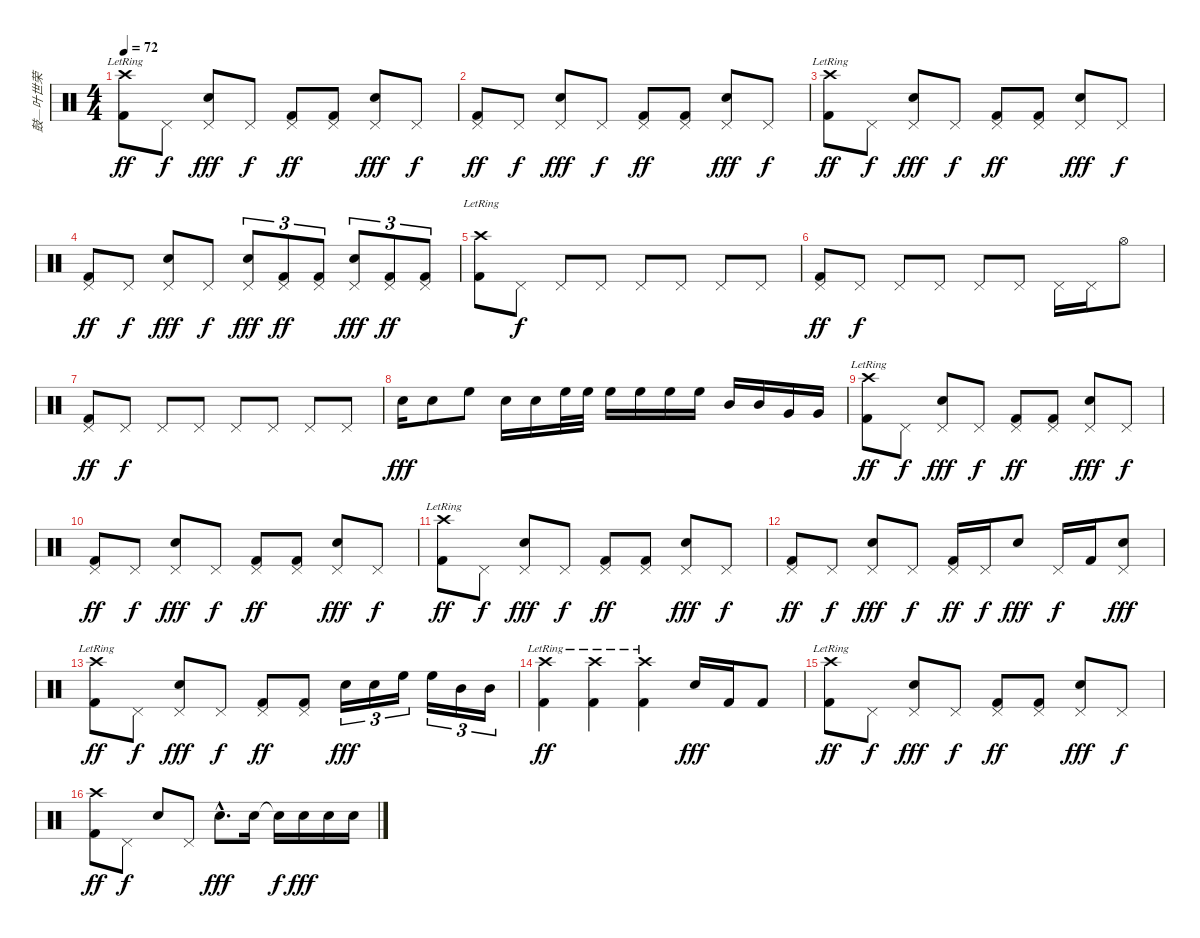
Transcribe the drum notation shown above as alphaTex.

\track ("鼓—叶世荣" "鼓—叶世荣") {instrument percussion}
\staff {score}
\articulation defaults
\ts (4 4)
\tempo 72
\clef neutral
\ks c
("Crash high (hit)"{lr} "Kick (hit) 2").8{dy ff} "Pedal Hi-Hat (hit)".8{dy f} ("Pedal Hi-Hat (hit)" "Electric Snare (hit)").8{dy fff} "Pedal Hi-Hat (hit)".8{dy f} ("Pedal Hi-Hat (hit)" "Kick (hit) 2").8{dy ff} ("Pedal Hi-Hat (hit)" "Kick (hit) 2").8 ("Pedal Hi-Hat (hit)" "Electric Snare (hit)").8{dy fff} "Pedal Hi-Hat (hit)".8{dy f} |
("Pedal Hi-Hat (hit)" "Kick (hit) 2").8{dy ff} "Pedal Hi-Hat (hit)".8{dy f} ("Pedal Hi-Hat (hit)" "Electric Snare (hit)").8{dy fff} "Pedal Hi-Hat (hit)".8{dy f} ("Pedal Hi-Hat (hit)" "Kick (hit) 2").8{dy ff} ("Pedal Hi-Hat (hit)" "Kick (hit) 2").8 ("Pedal Hi-Hat (hit)" "Electric Snare (hit)").8{dy fff} "Pedal Hi-Hat (hit)".8{dy f} |
("Crash high (hit)"{lr} "Kick (hit) 2").8{dy ff} "Pedal Hi-Hat (hit)".8{dy f} ("Pedal Hi-Hat (hit)" "Electric Snare (hit)").8{dy fff} "Pedal Hi-Hat (hit)".8{dy f} ("Pedal Hi-Hat (hit)" "Kick (hit) 2").8{dy ff} ("Pedal Hi-Hat (hit)" "Kick (hit) 2").8 ("Pedal Hi-Hat (hit)" "Electric Snare (hit)").8{dy fff} "Pedal Hi-Hat (hit)".8{dy f} |
("Pedal Hi-Hat (hit)" "Kick (hit) 2").8{dy ff} "Pedal Hi-Hat (hit)".8{dy f} ("Pedal Hi-Hat (hit)" "Electric Snare (hit)").8{dy fff} "Pedal Hi-Hat (hit)".8{dy f} ("Pedal Hi-Hat (hit)" "Electric Snare (hit)").8{tu (3 2) dy fff} ("Pedal Hi-Hat (hit)" "Kick (hit) 2").8{tu (3 2) dy ff} ("Pedal Hi-Hat (hit)" "Kick (hit) 2").8{tu (3 2)} ("Pedal Hi-Hat (hit)" "Electric Snare (hit)").8{tu (3 2) dy fff} ("Pedal Hi-Hat (hit)" "Kick (hit) 2").8{tu (3 2) dy ff} ("Pedal Hi-Hat (hit)" "Kick (hit) 2").8{tu (3 2)} |
("Crash high (hit)"{lr} "Kick (hit) 2").8 "Pedal Hi-Hat (hit)".8{dy f} "Pedal Hi-Hat (hit)".8 "Pedal Hi-Hat (hit)".8 "Pedal Hi-Hat (hit)".8 "Pedal Hi-Hat (hit)".8 "Pedal Hi-Hat (hit)".8 "Pedal Hi-Hat (hit)".8 |
("Pedal Hi-Hat (hit)" "Kick (hit) 2").8{dy ff} "Pedal Hi-Hat (hit)".8{dy f} "Pedal Hi-Hat (hit)".8 "Pedal Hi-Hat (hit)".8 "Pedal Hi-Hat (hit)".8 "Pedal Hi-Hat (hit)".8 "Pedal Hi-Hat (hit)".16 "Pedal Hi-Hat (hit)".16 "Hi-Hat (open)".8 |
("Pedal Hi-Hat (hit)" "Kick (hit) 2").8{dy ff} "Pedal Hi-Hat (hit)".8{dy f} "Pedal Hi-Hat (hit)".8 "Pedal Hi-Hat (hit)".8 "Pedal Hi-Hat (hit)".8 "Pedal Hi-Hat (hit)".8 "Pedal Hi-Hat (hit)".8 "Pedal Hi-Hat (hit)".8 |
"Electric Snare (hit)".16{dy fff} "Electric Snare (hit)".8 "High Floor Tom (hit)".8 "Electric Snare (hit)".16 "Electric Snare (hit)".16 "High Floor Tom (hit)".32 "High Floor Tom (hit)".32 "High Floor Tom (hit)".16 "High Floor Tom (hit)".16 "High Floor Tom (hit)".16 "High Floor Tom (hit)".16 "Mid Tom (hit)".16 "Mid Tom (hit)".16 "Very Low Tom (hit)".16 "Very Low Tom (hit)".16 |
("Crash high (hit)"{lr} "Kick (hit) 2").8{dy ff} "Pedal Hi-Hat (hit)".8{dy f} ("Pedal Hi-Hat (hit)" "Electric Snare (hit)").8{dy fff} "Pedal Hi-Hat (hit)".8{dy f} ("Pedal Hi-Hat (hit)" "Kick (hit) 2").8{dy ff} ("Pedal Hi-Hat (hit)" "Kick (hit) 2").8 ("Pedal Hi-Hat (hit)" "Electric Snare (hit)").8{dy fff} "Pedal Hi-Hat (hit)".8{dy f} |
("Pedal Hi-Hat (hit)" "Kick (hit) 2").8{dy ff} "Pedal Hi-Hat (hit)".8{dy f} ("Pedal Hi-Hat (hit)" "Electric Snare (hit)").8{dy fff} "Pedal Hi-Hat (hit)".8{dy f} ("Pedal Hi-Hat (hit)" "Kick (hit) 2").8{dy ff} ("Pedal Hi-Hat (hit)" "Kick (hit) 2").8 ("Pedal Hi-Hat (hit)" "Electric Snare (hit)").8{dy fff} "Pedal Hi-Hat (hit)".8{dy f} |
("Crash high (hit)"{lr} "Kick (hit) 2").8{dy ff} "Pedal Hi-Hat (hit)".8{dy f} ("Pedal Hi-Hat (hit)" "Electric Snare (hit)").8{dy fff} "Pedal Hi-Hat (hit)".8{dy f} ("Pedal Hi-Hat (hit)" "Kick (hit) 2").8{dy ff} ("Pedal Hi-Hat (hit)" "Kick (hit) 2").8 ("Pedal Hi-Hat (hit)" "Electric Snare (hit)").8{dy fff} "Pedal Hi-Hat (hit)".8{dy f} |
("Pedal Hi-Hat (hit)" "Kick (hit) 2").8{dy ff} "Pedal Hi-Hat (hit)".8{dy f} ("Pedal Hi-Hat (hit)" "Electric Snare (hit)").8{dy fff} "Pedal Hi-Hat (hit)".8{dy f} ("Pedal Hi-Hat (hit)" "Kick (hit) 2").16{dy ff} "Pedal Hi-Hat (hit)".16{dy f} "Electric Snare (hit)".8{dy fff} "Pedal Hi-Hat (hit)".16{dy f} "Kick (hit) 2".16 ("Pedal Hi-Hat (hit)" "Electric Snare (hit)").8{dy fff} |
("Crash high (hit)"{lr} "Kick (hit) 2").8{dy ff} "Pedal Hi-Hat (hit)".8{dy f} ("Pedal Hi-Hat (hit)" "Electric Snare (hit)").8{dy fff} "Pedal Hi-Hat (hit)".8{dy f} ("Pedal Hi-Hat (hit)" "Kick (hit) 2").8{dy ff} ("Pedal Hi-Hat (hit)" "Kick (hit) 2").8 "Electric Snare (hit)".16{tu (3 2) dy fff} "Electric Snare (hit)".16{tu (3 2)} "High Floor Tom (hit)".16{tu (3 2)} "High Floor Tom (hit)".16{tu (3 2)} "Mid Tom (hit)".16{tu (3 2)} "Mid Tom (hit)".16{tu (3 2)} |
("Crash high (hit)"{lr} "Kick (hit) 2").4{dy ff} ("Crash high (hit)"{lr} "Kick (hit) 2").4 ("Crash high (hit)"{lr} "Kick (hit) 2").4 "Electric Snare (hit)".16{dy fff} "Kick (hit) 2".16 "Kick (hit) 2".8 |
("Crash high (hit)"{lr} "Kick (hit) 2").8{dy ff} "Pedal Hi-Hat (hit)".8{dy f} ("Pedal Hi-Hat (hit)" "Electric Snare (hit)").8{dy fff} "Pedal Hi-Hat (hit)".8{dy f} ("Pedal Hi-Hat (hit)" "Kick (hit) 2").8{dy ff} ("Pedal Hi-Hat (hit)" "Kick (hit) 2").8 ("Pedal Hi-Hat (hit)" "Electric Snare (hit)").8{dy fff} "Pedal Hi-Hat (hit)".8{dy f} |
("Crash high (hit)" "Kick (hit) 2").8{dy ff} "Pedal Hi-Hat (hit)".8{dy f} "Electric Snare (hit)".8 "Pedal Hi-Hat (hit)".8 "Electric Snare (hit)"{hac}.8{d dy fff} "Electric Snare (hit)".16 "Snare (hit)"{t}.16{dy f} "Electric Snare (hit)".16{dy fff} "Electric Snare (hit)".16 "Electric Snare (hit)".16
